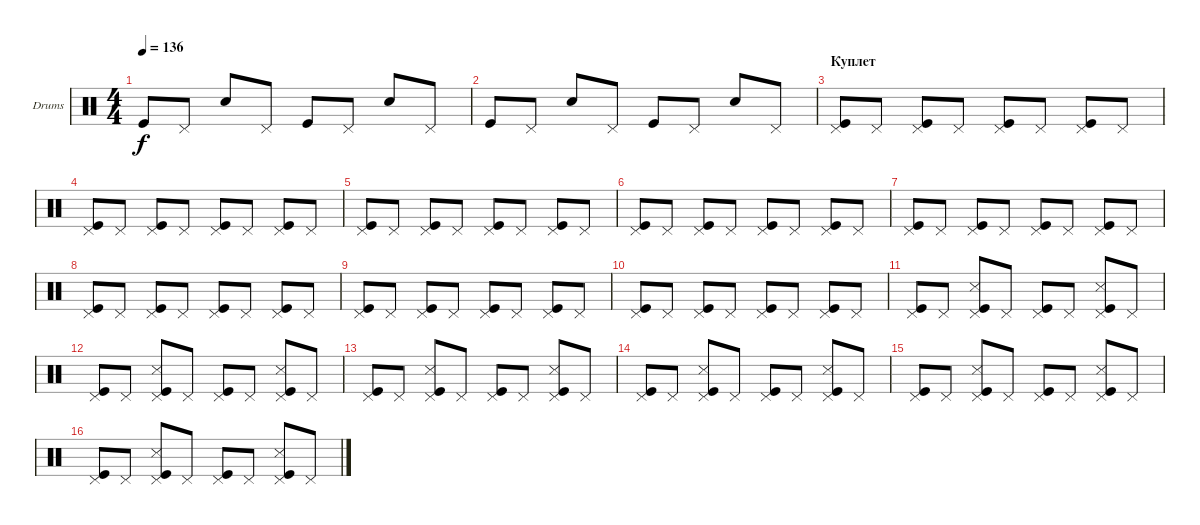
\defaultSystemsLayout 4
\bracketExtendMode groupsimilarinstruments
\firstSystemTrackNameOrientation horizontal
\otherSystemsTrackNameOrientation horizontal
\track ("Е. Кулаков" "Drums") {instrument percussion}
\staff {score}
\articulation defaults
\ts (4 4)
\tempo 136
\clef neutral
\ks c "Kick (hit)".8{dy f} "Pedal Hi-Hat (hit)".8 "Snare (hit) 2".8 "Pedal Hi-Hat (hit)".8 "Kick (hit)".8 "Pedal Hi-Hat (hit)".8 "Snare (hit) 2".8 "Pedal Hi-Hat (hit)".8
|
"Kick (hit)".8 "Pedal Hi-Hat (hit)".8 "Snare (hit) 2".8 "Pedal Hi-Hat (hit)".8 "Kick (hit)".8 "Pedal Hi-Hat (hit)".8 "Snare (hit) 2".8 "Pedal Hi-Hat (hit)".8 |
\section ("" "Куплет")
("Pedal Hi-Hat (hit)" "Kick (hit)").8 "Pedal Hi-Hat (hit)".8 ("Pedal Hi-Hat (hit)" "Kick (hit)").8 "Pedal Hi-Hat (hit)".8 ("Pedal Hi-Hat (hit)" "Kick (hit)").8 "Pedal Hi-Hat (hit)".8 ("Pedal Hi-Hat (hit)" "Kick (hit)").8 "Pedal Hi-Hat (hit)".8 |
("Pedal Hi-Hat (hit)" "Kick (hit)").8 "Pedal Hi-Hat (hit)".8 ("Pedal Hi-Hat (hit)" "Kick (hit)").8 "Pedal Hi-Hat (hit)".8 ("Pedal Hi-Hat (hit)" "Kick (hit)").8 "Pedal Hi-Hat (hit)".8 ("Pedal Hi-Hat (hit)" "Kick (hit)").8 "Pedal Hi-Hat (hit)".8 |
("Pedal Hi-Hat (hit)" "Kick (hit)").8 "Pedal Hi-Hat (hit)".8 ("Pedal Hi-Hat (hit)" "Kick (hit)").8 "Pedal Hi-Hat (hit)".8 ("Pedal Hi-Hat (hit)" "Kick (hit)").8 "Pedal Hi-Hat (hit)".8 ("Pedal Hi-Hat (hit)" "Kick (hit)").8 "Pedal Hi-Hat (hit)".8 |
("Pedal Hi-Hat (hit)" "Kick (hit)").8 "Pedal Hi-Hat (hit)".8 ("Pedal Hi-Hat (hit)" "Kick (hit)").8 "Pedal Hi-Hat (hit)".8 ("Pedal Hi-Hat (hit)" "Kick (hit)").8 "Pedal Hi-Hat (hit)".8 ("Pedal Hi-Hat (hit)" "Kick (hit)").8 "Pedal Hi-Hat (hit)".8 |
("Pedal Hi-Hat (hit)" "Kick (hit)").8 "Pedal Hi-Hat (hit)".8 ("Pedal Hi-Hat (hit)" "Kick (hit)").8 "Pedal Hi-Hat (hit)".8 ("Pedal Hi-Hat (hit)" "Kick (hit)").8 "Pedal Hi-Hat (hit)".8 ("Pedal Hi-Hat (hit)" "Kick (hit)").8 "Pedal Hi-Hat (hit)".8 |
("Pedal Hi-Hat (hit)" "Kick (hit)").8 "Pedal Hi-Hat (hit)".8 ("Pedal Hi-Hat (hit)" "Kick (hit)").8 "Pedal Hi-Hat (hit)".8 ("Pedal Hi-Hat (hit)" "Kick (hit)").8 "Pedal Hi-Hat (hit)".8 ("Pedal Hi-Hat (hit)" "Kick (hit)").8 "Pedal Hi-Hat (hit)".8 |
("Pedal Hi-Hat (hit)" "Kick (hit)").8 "Pedal Hi-Hat (hit)".8 ("Pedal Hi-Hat (hit)" "Kick (hit)").8 "Pedal Hi-Hat (hit)".8 ("Pedal Hi-Hat (hit)" "Kick (hit)").8 "Pedal Hi-Hat (hit)".8 ("Pedal Hi-Hat (hit)" "Kick (hit)").8 "Pedal Hi-Hat (hit)".8 |
("Pedal Hi-Hat (hit)" "Kick (hit)").8 "Pedal Hi-Hat (hit)".8 ("Pedal Hi-Hat (hit)" "Kick (hit)").8 "Pedal Hi-Hat (hit)".8 ("Pedal Hi-Hat (hit)" "Kick (hit)").8 "Pedal Hi-Hat (hit)".8 ("Pedal Hi-Hat (hit)" "Kick (hit)").8 "Pedal Hi-Hat (hit)".8 |
("Pedal Hi-Hat (hit)" "Kick (hit)").8 "Pedal Hi-Hat (hit)".8 ("Pedal Hi-Hat (hit)" "Kick (hit)" "Snare (side stick) 3").8 "Pedal Hi-Hat (hit)".8 ("Pedal Hi-Hat (hit)" "Kick (hit)").8 "Pedal Hi-Hat (hit)".8 ("Pedal Hi-Hat (hit)" "Kick (hit)" "Snare (side stick) 3").8 "Pedal Hi-Hat (hit)".8 |
("Pedal Hi-Hat (hit)" "Kick (hit)").8 "Pedal Hi-Hat (hit)".8 ("Pedal Hi-Hat (hit)" "Kick (hit)" "Snare (side stick) 3").8 "Pedal Hi-Hat (hit)".8 ("Pedal Hi-Hat (hit)" "Kick (hit)").8 "Pedal Hi-Hat (hit)".8 ("Pedal Hi-Hat (hit)" "Kick (hit)" "Snare (side stick) 3").8 "Pedal Hi-Hat (hit)".8 |
("Pedal Hi-Hat (hit)" "Kick (hit)").8 "Pedal Hi-Hat (hit)".8 ("Pedal Hi-Hat (hit)" "Kick (hit)" "Snare (side stick) 3").8 "Pedal Hi-Hat (hit)".8 ("Pedal Hi-Hat (hit)" "Kick (hit)").8 "Pedal Hi-Hat (hit)".8 ("Pedal Hi-Hat (hit)" "Kick (hit)" "Snare (side stick) 3").8 "Pedal Hi-Hat (hit)".8 |
("Pedal Hi-Hat (hit)" "Kick (hit)").8 "Pedal Hi-Hat (hit)".8 ("Pedal Hi-Hat (hit)" "Kick (hit)" "Snare (side stick) 3").8 "Pedal Hi-Hat (hit)".8 ("Pedal Hi-Hat (hit)" "Kick (hit)").8 "Pedal Hi-Hat (hit)".8 ("Pedal Hi-Hat (hit)" "Kick (hit)" "Snare (side stick) 3").8 "Pedal Hi-Hat (hit)".8 |
("Pedal Hi-Hat (hit)" "Kick (hit)").8 "Pedal Hi-Hat (hit)".8 ("Pedal Hi-Hat (hit)" "Kick (hit)" "Snare (side stick) 3").8 "Pedal Hi-Hat (hit)".8 ("Pedal Hi-Hat (hit)" "Kick (hit)").8 "Pedal Hi-Hat (hit)".8 ("Pedal Hi-Hat (hit)" "Kick (hit)" "Snare (side stick) 3").8 "Pedal Hi-Hat (hit)".8 |
("Pedal Hi-Hat (hit)" "Kick (hit)").8 "Pedal Hi-Hat (hit)".8 ("Pedal Hi-Hat (hit)" "Kick (hit)" "Snare (side stick) 3").8 "Pedal Hi-Hat (hit)".8 ("Pedal Hi-Hat (hit)" "Kick (hit)").8 "Pedal Hi-Hat (hit)".8 ("Pedal Hi-Hat (hit)" "Kick (hit)" "Snare (side stick) 3").8 "Pedal Hi-Hat (hit)".8
